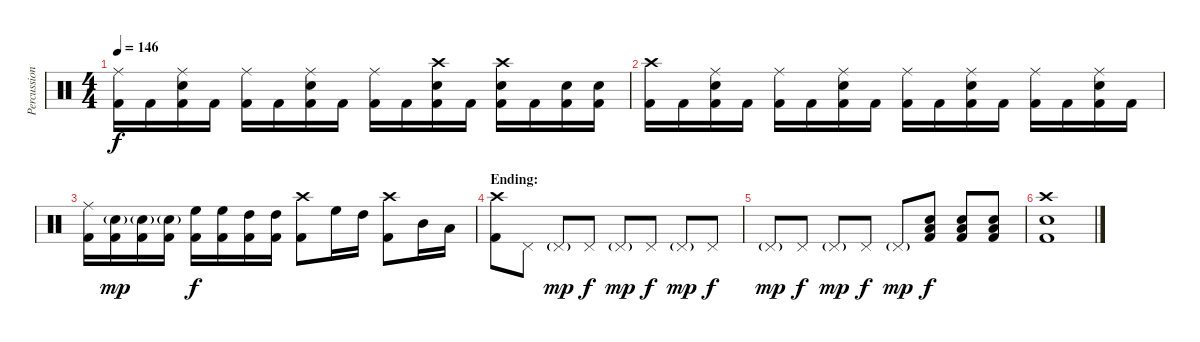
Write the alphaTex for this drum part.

\track ("Percussion" "Percussion") {instrument percussion}
\staff {score}
\articulation defaults
\ts (4 4)
\tempo 146
\clef neutral
\ks c
("Ride (middle)" "Kick (hit) 2").16{dy f} "Kick (hit) 2".16 ("Ride (middle)" "Snare (hit) 2" "Kick (hit) 2").16 "Kick (hit) 2".16 ("Ride (middle)" "Kick (hit) 2").16 "Kick (hit) 2".16 ("Ride (middle)" "Snare (hit) 2" "Kick (hit) 2").16 "Kick (hit) 2".16 ("Ride (middle)" "Kick (hit) 2").16 "Kick (hit) 2".16 ("Crash high (hit)" "Snare (hit) 2" "Kick (hit) 2").16 "Kick (hit) 2".16 ("Crash high (hit)" "Snare (hit) 2" "Kick (hit) 2").16 "Kick (hit) 2".16 ("Snare (hit) 2" "Kick (hit) 2").16 ("Snare (hit) 2" "Kick (hit) 2").16 |
("Crash high (hit)" "Kick (hit) 2").16 "Kick (hit) 2".16 ("Ride (middle)" "Snare (hit) 2" "Kick (hit) 2").16 "Kick (hit) 2".16 ("Ride (middle)" "Kick (hit) 2").16 "Kick (hit) 2".16 ("Ride (middle)" "Snare (hit) 2" "Kick (hit) 2").16 "Kick (hit) 2".16 ("Ride (middle)" "Kick (hit) 2").16 "Kick (hit) 2".16 ("Ride (middle)" "Snare (hit) 2" "Kick (hit) 2").16 "Kick (hit) 2".16 ("Ride (middle)" "Kick (hit) 2").16 "Kick (hit) 2".16 ("Ride (middle)" "Snare (hit) 2" "Kick (hit) 2").16 "Kick (hit) 2".16 |
("Ride (middle)" "Kick (hit) 2").16 ("Snare (hit) 2"{g} "Kick (hit) 2").16{dy mp} ("Snare (hit) 2"{g} "Kick (hit) 2").16 ("Snare (hit) 2"{g} "Kick (hit) 2").16 ("High Floor Tom (hit)" "Kick (hit) 2").16{dy f} ("High Floor Tom (hit)" "Kick (hit) 2").16 ("High Tom (hit)" "Kick (hit) 2").16 ("High Tom (hit)" "Kick (hit) 2").16 ("Crash high (hit)" "Kick (hit) 2").8 "High Floor Tom (hit)".16 "High Tom (hit)".16 ("Crash high (hit)" "Kick (hit) 2").8 "Mid Tom (hit)".16 "Low Tom (hit)".16 |
\section ("" "Ending:")
("Crash high (hit)" "Kick (hit) 2").8 "Pedal Hi-Hat (hit)".8 "Pedal Hi-Hat (hit)"{g}.8{dy mp} "Pedal Hi-Hat (hit)".8{dy f} "Pedal Hi-Hat (hit)"{g}.8{dy mp} "Pedal Hi-Hat (hit)".8{dy f} "Pedal Hi-Hat (hit)"{g}.8{dy mp} "Pedal Hi-Hat (hit)".8{dy f} |
"Pedal Hi-Hat (hit)"{g}.8{dy mp} "Pedal Hi-Hat (hit)".8{dy f} "Pedal Hi-Hat (hit)"{g}.8{dy mp} "Pedal Hi-Hat (hit)".8{dy f} "Pedal Hi-Hat (hit)"{g}.8{dy mp} ("Low Tom (hit)" "Snare (hit) 2" "Kick (hit) 2").8{dy f} ("Low Tom (hit)" "Snare (hit) 2" "Kick (hit) 2").8 ("Low Tom (hit)" "Snare (hit) 2" "Kick (hit) 2").8 |
("Crash high (hit)" "Snare (hit) 2" "Kick (hit) 2").1
